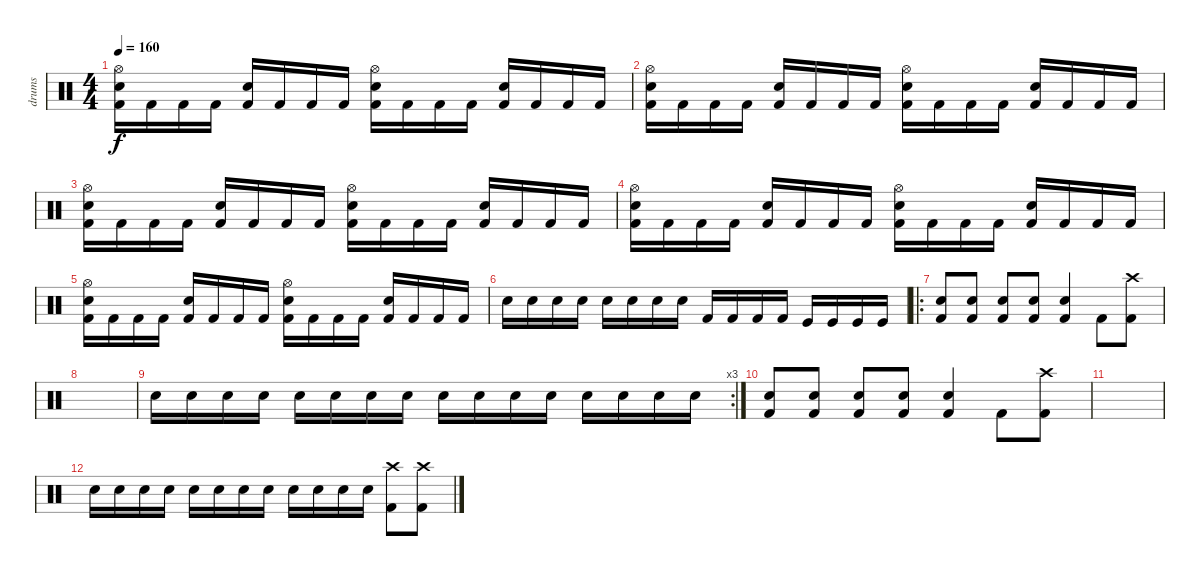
\track ("drums" "drums") {instrument percussion}
\staff {score}
\articulation defaults
\ts (4 4)
\tempo 160
\clef neutral
\ks c
("Hi-Hat (open)" "Electric Snare (hit)" "Kick (hit) 2").16{dy f} "Kick (hit) 2".16 "Kick (hit) 2".16 "Kick (hit) 2".16 ("Electric Snare (hit)" "Kick (hit) 2").16 "Kick (hit) 2".16 "Kick (hit) 2".16 "Kick (hit) 2".16 ("Hi-Hat (open)" "Electric Snare (hit)" "Kick (hit) 2").16 "Kick (hit) 2".16 "Kick (hit) 2".16 "Kick (hit) 2".16 ("Electric Snare (hit)" "Kick (hit) 2").16 "Kick (hit) 2".16 "Kick (hit) 2".16 "Kick (hit) 2".16 |
("Hi-Hat (open)" "Electric Snare (hit)" "Kick (hit) 2").16 "Kick (hit) 2".16 "Kick (hit) 2".16 "Kick (hit) 2".16 ("Electric Snare (hit)" "Kick (hit) 2").16 "Kick (hit) 2".16 "Kick (hit) 2".16 "Kick (hit) 2".16 ("Hi-Hat (open)" "Electric Snare (hit)" "Kick (hit) 2").16 "Kick (hit) 2".16 "Kick (hit) 2".16 "Kick (hit) 2".16 ("Electric Snare (hit)" "Kick (hit) 2").16 "Kick (hit) 2".16 "Kick (hit) 2".16 "Kick (hit) 2".16 |
("Hi-Hat (open)" "Electric Snare (hit)" "Kick (hit) 2").16 "Kick (hit) 2".16 "Kick (hit) 2".16 "Kick (hit) 2".16 ("Electric Snare (hit)" "Kick (hit) 2").16 "Kick (hit) 2".16 "Kick (hit) 2".16 "Kick (hit) 2".16 ("Hi-Hat (open)" "Electric Snare (hit)" "Kick (hit) 2").16 "Kick (hit) 2".16 "Kick (hit) 2".16 "Kick (hit) 2".16 ("Electric Snare (hit)" "Kick (hit) 2").16 "Kick (hit) 2".16 "Kick (hit) 2".16 "Kick (hit) 2".16 |
("Hi-Hat (open)" "Electric Snare (hit)" "Kick (hit) 2").16 "Kick (hit) 2".16 "Kick (hit) 2".16 "Kick (hit) 2".16 ("Electric Snare (hit)" "Kick (hit) 2").16 "Kick (hit) 2".16 "Kick (hit) 2".16 "Kick (hit) 2".16 ("Hi-Hat (open)" "Electric Snare (hit)" "Kick (hit) 2").16 "Kick (hit) 2".16 "Kick (hit) 2".16 "Kick (hit) 2".16 ("Electric Snare (hit)" "Kick (hit) 2").16 "Kick (hit) 2".16 "Kick (hit) 2".16 "Kick (hit) 2".16 |
("Hi-Hat (open)" "Electric Snare (hit)" "Kick (hit) 2").16 "Kick (hit) 2".16 "Kick (hit) 2".16 "Kick (hit) 2".16 ("Electric Snare (hit)" "Kick (hit) 2").16 "Kick (hit) 2".16 "Kick (hit) 2".16 "Kick (hit) 2".16 ("Hi-Hat (open)" "Electric Snare (hit)" "Kick (hit) 2").16 "Kick (hit) 2".16 "Kick (hit) 2".16 "Kick (hit) 2".16 ("Electric Snare (hit)" "Kick (hit) 2").16 "Kick (hit) 2".16 "Kick (hit) 2".16 "Kick (hit) 2".16 |
"Electric Snare (hit)".16 "Electric Snare (hit)".16 "Electric Snare (hit)".16 "Electric Snare (hit)".16 "Snare (hit) 2".16 "Snare (hit) 2".16 "Snare (hit) 2".16 "Snare (hit) 2".16 "Kick (hit) 2".16 "Kick (hit) 2".16 "Kick (hit) 2".16 "Kick (hit) 2".16 "Kick (hit)".16 "Kick (hit)".16 "Kick (hit)".16 "Kick (hit)".16 |
\ro
("Snare (hit) 2" "Kick (hit) 2").8 ("Snare (hit) 2" "Kick (hit) 2").8 ("Snare (hit) 2" "Kick (hit) 2").8 ("Snare (hit) 2" "Kick (hit) 2").8 ("Snare (hit) 2" "Kick (hit) 2").4 "Kick (hit) 2".8 ("Crash high (hit)" "Kick (hit) 2").8 |
|
\rc 3 "Electric Snare (hit)".16{volume 9} "Electric Snare (hit)".16 "Electric Snare (hit)".16 "Electric Snare (hit)".16 "Snare (hit) 2".16 "Snare (hit) 2".16 "Snare (hit) 2".16 "Snare (hit) 2".16 "Electric Snare (hit)".16 "Electric Snare (hit)".16 "Electric Snare (hit)".16 "Electric Snare (hit)".16 "Snare (hit) 2".16 "Snare (hit) 2".16 "Snare (hit) 2".16 "Snare (hit) 2".16
|
("Snare (hit) 2" "Kick (hit) 2").8 ("Snare (hit) 2" "Kick (hit) 2").8 ("Snare (hit) 2" "Kick (hit) 2").8 ("Snare (hit) 2" "Kick (hit) 2").8 ("Snare (hit) 2" "Kick (hit) 2").4 "Kick (hit) 2".8 ("Crash high (hit)" "Kick (hit) 2").8 |
|
"Electric Snare (hit)".16{volume 9} "Electric Snare (hit)".16 "Electric Snare (hit)".16 "Electric Snare (hit)".16 "Snare (hit) 2".16 "Snare (hit) 2".16 "Snare (hit) 2".16 "Snare (hit) 2".16 "Electric Snare (hit)".16 "Electric Snare (hit)".16 "Snare (hit) 2".16 "Snare (hit) 2".16 ("Crash high (hit)" "Kick (hit) 2").8 ("Crash high (hit)" "Kick (hit) 2").8
